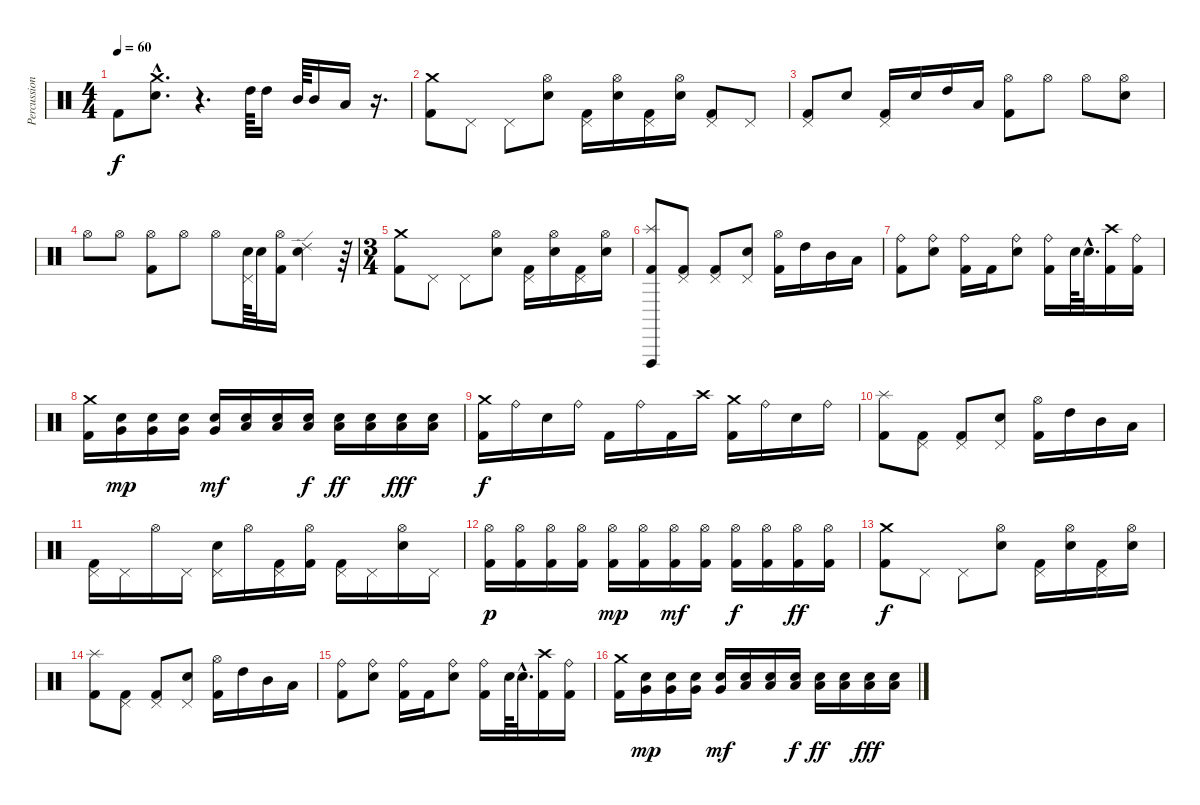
\track ("Percussions" "Percussion") {instrument percussion}
\staff {score}
\articulation defaults
\ts (4 4)
\tempo 60
\clef neutral
\ks c "Kick (hit) 2".8{dy f}
("Crash medium (hit)"{hac} "Electric Snare (hit)"{hac}).8{d} r.4{d} "High Tom (hit)".64 "High Tom (hit)".16 "Mid Tom (hit)".64 "Mid Tom (hit)".16 "Low Tom (hit)".16 r.16{d} |
("Crash medium (hit)" "Kick (hit) 2").8 "Pedal Hi-Hat (hit)".8 "Pedal Hi-Hat (hit)".8 ("Hi-Hat (open)" "Electric Snare (hit)").8 ("Pedal Hi-Hat (hit)" "Kick (hit) 2").16 ("Hi-Hat (open)" "Electric Snare (hit)").16 ("Pedal Hi-Hat (hit)" "Kick (hit) 2").16 ("Hi-Hat (open)" "Electric Snare (hit)").16 ("Pedal Hi-Hat (hit)" "Kick (hit) 2").8 "Pedal Hi-Hat (hit)".8 |
("Pedal Hi-Hat (hit)" "Kick (hit) 2").8 "Electric Snare (hit)".8 ("Pedal Hi-Hat (hit)" "Kick (hit) 2").16 "Electric Snare (hit)".16 "High Tom (hit)".16 "Low Tom (hit)".16 ("Hi-Hat (open)" "Kick (hit) 2").8 "Hi-Hat (open)".8 "Hi-Hat (open)".8 ("Hi-Hat (open)" "Electric Snare (hit)").8 |
"Hi-Hat (open)".8 "Hi-Hat (open)".8 ("Hi-Hat (open)" "Kick (hit) 2").8 "Hi-Hat (open)".8 "Hi-Hat (open)".8 ("Pedal Hi-Hat (hit)" "Electric Snare (hit)").64 "Electric Snare (hit)".32 ("Hi-Hat (open)" "Kick (hit) 2").16 ("Ride (edge) 2" "Electric Snare (hit)").4 r.64 |
\ts (3 4)
("Crash medium (hit)" "Kick (hit) 2").8 "Pedal Hi-Hat (hit)".8 "Pedal Hi-Hat (hit)".8 ("Hi-Hat (open)" "Electric Snare (hit)").8 ("Pedal Hi-Hat (hit)" "Kick (hit) 2").16 ("Hi-Hat (open)" "Electric Snare (hit)").16 ("Pedal Hi-Hat (hit)" "Kick (hit) 2").16 ("Hi-Hat (open)" "Electric Snare (hit)").16 |
("Splash (hit)" "Vibraslap (hit)" "Kick (hit) 2").8 ("Pedal Hi-Hat (hit)" "Kick (hit) 2").8 ("Pedal Hi-Hat (hit)" "Kick (hit) 2").8 ("Pedal Hi-Hat (hit)" "Electric Snare (hit)").8 ("Hi-Hat (open)" "Kick (hit) 2").16 "High Tom (hit)".16 "Mid Tom (hit)".16 "Low Tom (hit)".16 |
("Ride (bell)" "Kick (hit) 2").8 ("Ride (bell)" "Electric Snare (hit)").8 ("Ride (bell)" "Kick (hit) 2").16 "Kick (hit) 2".16 ("Ride (bell)" "Electric Snare (hit)").8 ("Ride (bell)" "Kick (hit) 2").16 "Electric Snare (hit)".64 "Electric Snare (hit)"{hac}.32{d} ("Crash high (hit)" "Kick (hit) 2").16 ("Ride (bell)" "Kick (hit) 2").16 |
("Crash medium (hit)" "Kick (hit) 2").16 ("Very Low Tom (hit)" "Electric Snare (hit)").16{dy mp} ("Very Low Tom (hit)" "Electric Snare (hit)").16 ("Very Low Tom (hit)" "Electric Snare (hit)").16 ("Very Low Tom (hit)" "Electric Snare (hit)").16{dy mf} ("Low Floor Tom (hit)" "Electric Snare (hit)").16 ("Low Floor Tom (hit)" "Electric Snare (hit)").16 ("Low Floor Tom (hit)" "Electric Snare (hit)").16{dy f} ("Low Floor Tom (hit)" "Electric Snare (hit)").16{dy ff} ("Low Floor Tom (hit)" "Electric Snare (hit)").16 ("Low Floor Tom (hit)" "Electric Snare (hit)").16{dy fff} ("Low Floor Tom (hit)" "Electric Snare (hit)").16 |
("Crash medium (hit)" "Kick (hit) 2").16{dy f} "Ride (bell)".16 "Electric Snare (hit)".16 "Ride (bell)".16 "Kick (hit) 2".16 "Ride (bell)".16 "Kick (hit) 2".16 "Crash high (hit)".16 ("Crash medium (hit)" "Kick (hit) 2").16 "Ride (bell)".16 "Electric Snare (hit)".16 "Ride (bell)".16 |
("Splash (hit)" "Kick (hit) 2").8 ("Pedal Hi-Hat (hit)" "Kick (hit) 2").8 ("Pedal Hi-Hat (hit)" "Kick (hit) 2").8 ("Pedal Hi-Hat (hit)" "Electric Snare (hit)").8 ("Hi-Hat (open)" "Kick (hit) 2").16 "High Tom (hit)".16 "Mid Tom (hit)".16 "Low Tom (hit)".16 |
("Pedal Hi-Hat (hit)" "Kick (hit) 2").16 "Pedal Hi-Hat (hit)".16 "Hi-Hat (open)".16 "Pedal Hi-Hat (hit)".16 ("Pedal Hi-Hat (hit)" "Electric Snare (hit)").16 "Hi-Hat (open)".16 ("Pedal Hi-Hat (hit)" "Kick (hit) 2").16 ("Hi-Hat (open)" "Kick (hit) 2").16 ("Pedal Hi-Hat (hit)" "Kick (hit) 2").16 "Pedal Hi-Hat (hit)".16 ("Hi-Hat (open)" "Electric Snare (hit)").16 "Pedal Hi-Hat (hit)".16 |
("Hi-Hat (open)" "Kick (hit) 2").16{dy p} ("Hi-Hat (open)" "Kick (hit) 2").16 ("Hi-Hat (open)" "Kick (hit) 2").16 ("Hi-Hat (open)" "Kick (hit) 2").16 ("Hi-Hat (open)" "Kick (hit) 2").16{dy mp} ("Hi-Hat (open)" "Kick (hit) 2").16 ("Hi-Hat (open)" "Kick (hit) 2").16{dy mf} ("Hi-Hat (open)" "Kick (hit) 2").16 ("Hi-Hat (open)" "Kick (hit) 2").16{dy f} ("Hi-Hat (open)" "Kick (hit) 2").16 ("Hi-Hat (open)" "Kick (hit) 2").16{dy ff} ("Hi-Hat (open)" "Kick (hit) 2").16 |
("Crash medium (hit)" "Kick (hit) 2").8{dy f} "Pedal Hi-Hat (hit)".8 "Pedal Hi-Hat (hit)".8 ("Hi-Hat (open)" "Electric Snare (hit)").8 ("Pedal Hi-Hat (hit)" "Kick (hit) 2").16 ("Hi-Hat (open)" "Electric Snare (hit)").16 ("Pedal Hi-Hat (hit)" "Kick (hit) 2").16 ("Hi-Hat (open)" "Electric Snare (hit)").16 |
("Splash (hit)" "Kick (hit) 2").8 ("Pedal Hi-Hat (hit)" "Kick (hit) 2").8 ("Pedal Hi-Hat (hit)" "Kick (hit) 2").8 ("Pedal Hi-Hat (hit)" "Electric Snare (hit)").8 ("Hi-Hat (open)" "Kick (hit) 2").16 "High Tom (hit)".16 "Mid Tom (hit)".16 "Low Tom (hit)".16 |
("Ride (bell)" "Kick (hit) 2").8 ("Ride (bell)" "Electric Snare (hit)").8 ("Ride (bell)" "Kick (hit) 2").16 "Kick (hit) 2".16 ("Ride (bell)" "Electric Snare (hit)").8 ("Ride (bell)" "Kick (hit) 2").16 "Electric Snare (hit)".64 "Electric Snare (hit)"{hac}.32{d} ("Crash high (hit)" "Kick (hit) 2").16 ("Ride (bell)" "Kick (hit) 2").16 |
("Crash medium (hit)" "Kick (hit) 2").16 ("Very Low Tom (hit)" "Electric Snare (hit)").16{dy mp} ("Very Low Tom (hit)" "Electric Snare (hit)").16 ("Very Low Tom (hit)" "Electric Snare (hit)").16 ("Very Low Tom (hit)" "Electric Snare (hit)").16{dy mf} ("Low Floor Tom (hit)" "Electric Snare (hit)").16 ("Low Floor Tom (hit)" "Electric Snare (hit)").16 ("Low Floor Tom (hit)" "Electric Snare (hit)").16{dy f} ("Low Floor Tom (hit)" "Electric Snare (hit)").16{dy ff} ("Low Floor Tom (hit)" "Electric Snare (hit)").16 ("Low Floor Tom (hit)" "Electric Snare (hit)").16{dy fff} ("Low Floor Tom (hit)" "Electric Snare (hit)").16
